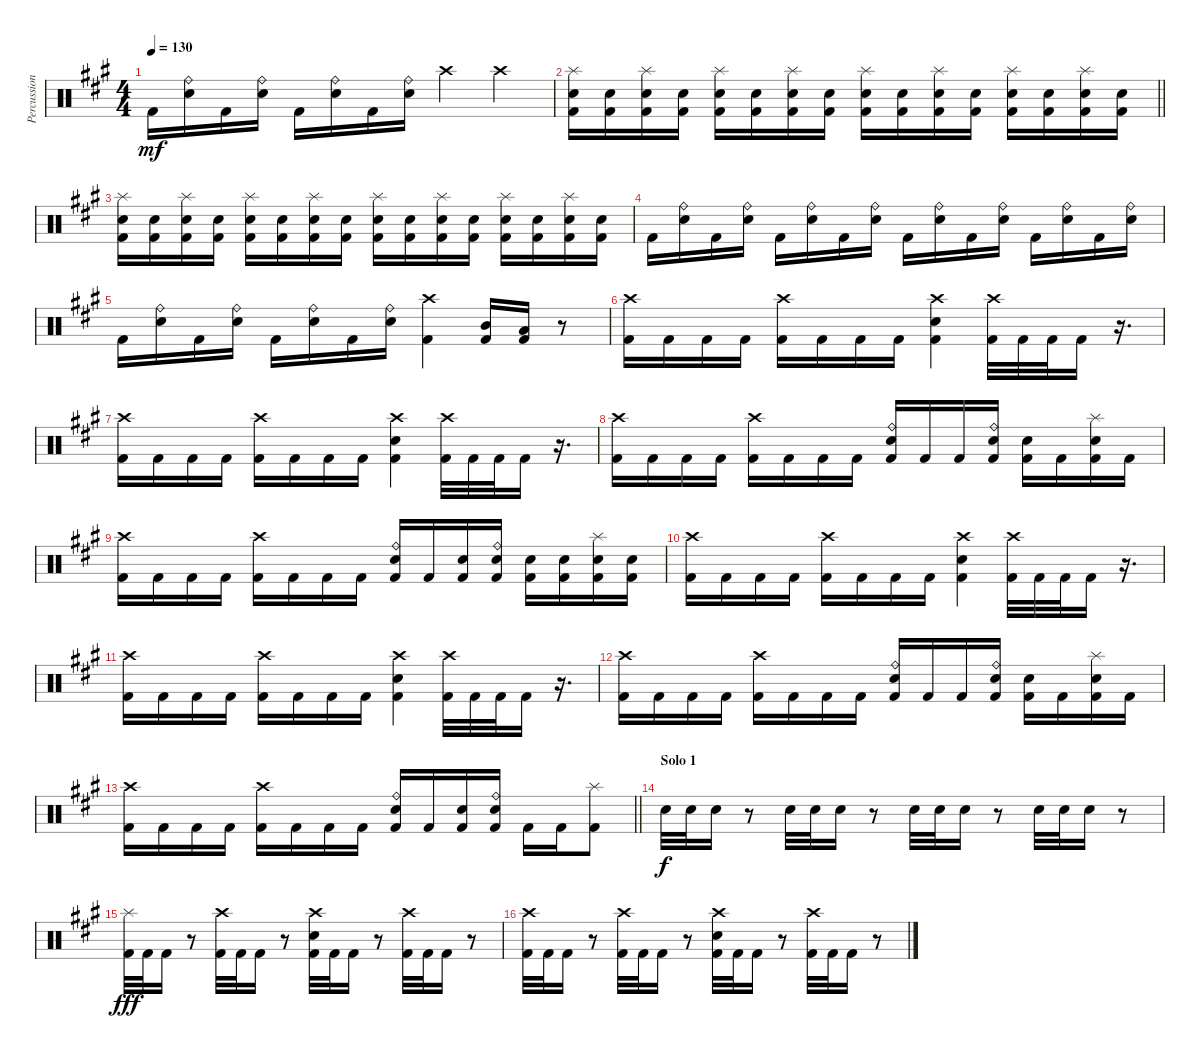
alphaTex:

\track ("Percussion" "Percussion") {instrument percussion bank 127}
\staff {score}
\articulation defaults
\ts (4 4)
\tempo 130
\clef neutral
\ks a "Kick (hit) 2".16{dy mf}
("Ride (bell)" "Electric Snare (hit)").16 "Kick (hit) 2".16 ("Ride (bell)" "Electric Snare (hit)").16 "Kick (hit) 2".16 ("Ride (bell)" "Electric Snare (hit)").16 "Kick (hit) 2".16 ("Ride (bell)" "Electric Snare (hit)").16 "Crash high (hit)".4 "Crash high (hit)".4 |
\barLineRight lightlight
("Splash (hit)" "Electric Snare (hit)" "Kick (hit) 2").16 ("Electric Snare (hit)" "Kick (hit) 2").16 ("Splash (hit)" "Electric Snare (hit)" "Kick (hit) 2").16 ("Electric Snare (hit)" "Kick (hit) 2").16 ("Splash (hit)" "Electric Snare (hit)" "Kick (hit) 2").16 ("Electric Snare (hit)" "Kick (hit) 2").16 ("Splash (hit)" "Electric Snare (hit)" "Kick (hit) 2").16 ("Electric Snare (hit)" "Kick (hit) 2").16 ("Splash (hit)" "Electric Snare (hit)" "Kick (hit) 2").16 ("Electric Snare (hit)" "Kick (hit) 2").16 ("Splash (hit)" "Electric Snare (hit)" "Kick (hit) 2").16 ("Electric Snare (hit)" "Kick (hit) 2").16 ("Splash (hit)" "Electric Snare (hit)" "Kick (hit) 2").16 ("Electric Snare (hit)" "Kick (hit) 2").16 ("Splash (hit)" "Electric Snare (hit)" "Kick (hit) 2").16 ("Electric Snare (hit)" "Kick (hit) 2").16 |
("Splash (hit)" "Electric Snare (hit)" "Kick (hit) 2").16 ("Electric Snare (hit)" "Kick (hit) 2").16 ("Splash (hit)" "Electric Snare (hit)" "Kick (hit) 2").16 ("Electric Snare (hit)" "Kick (hit) 2").16 ("Splash (hit)" "Electric Snare (hit)" "Kick (hit) 2").16 ("Electric Snare (hit)" "Kick (hit) 2").16 ("Splash (hit)" "Electric Snare (hit)" "Kick (hit) 2").16 ("Electric Snare (hit)" "Kick (hit) 2").16 ("Splash (hit)" "Electric Snare (hit)" "Kick (hit) 2").16 ("Electric Snare (hit)" "Kick (hit) 2").16 ("Splash (hit)" "Electric Snare (hit)" "Kick (hit) 2").16 ("Electric Snare (hit)" "Kick (hit) 2").16 ("Splash (hit)" "Electric Snare (hit)" "Kick (hit) 2").16 ("Electric Snare (hit)" "Kick (hit) 2").16 ("Splash (hit)" "Electric Snare (hit)" "Kick (hit) 2").16 ("Electric Snare (hit)" "Kick (hit) 2").16 |
"Kick (hit) 2".16 ("Ride (bell)" "Electric Snare (hit)").16 "Kick (hit) 2".16 ("Ride (bell)" "Electric Snare (hit)").16 "Kick (hit) 2".16 ("Ride (bell)" "Electric Snare (hit)").16 "Kick (hit) 2".16 ("Ride (bell)" "Electric Snare (hit)").16 "Kick (hit) 2".16 ("Ride (bell)" "Electric Snare (hit)").16 "Kick (hit) 2".16 ("Ride (bell)" "Electric Snare (hit)").16 "Kick (hit) 2".16 ("Ride (bell)" "Electric Snare (hit)").16 "Kick (hit) 2".16 ("Ride (bell)" "Electric Snare (hit)").16 |
"Kick (hit) 2".16 ("Ride (bell)" "Electric Snare (hit)").16 "Kick (hit) 2".16 ("Ride (bell)" "Electric Snare (hit)").16 "Kick (hit) 2".16 ("Ride (bell)" "Electric Snare (hit)").16 "Kick (hit) 2".16 ("Ride (bell)" "Electric Snare (hit)").16 ("Crash high (hit)" "Kick (hit) 2").4 ("Mid Tom (hit)" "Kick (hit) 2").16 ("Low Tom (hit)" "Kick (hit) 2").16 r.8 |
("Crash high (hit)" "Kick (hit) 2").16 "Kick (hit) 2".16 "Kick (hit) 2".16 "Kick (hit) 2".16 ("Crash high (hit)" "Kick (hit) 2").16 "Kick (hit) 2".16 "Kick (hit) 2".16 "Kick (hit) 2".16 ("Crash high (hit)" "Electric Snare (hit)" "Kick (hit) 2").4 ("Crash high (hit)" "Kick (hit) 2").32 "Kick (hit) 2".32 "Kick (hit) 2".32 "Kick (hit) 2".16 r.16{d} |
("Crash high (hit)" "Kick (hit) 2").16 "Kick (hit) 2".16 "Kick (hit) 2".16 "Kick (hit) 2".16 ("Crash high (hit)" "Kick (hit) 2").16 "Kick (hit) 2".16 "Kick (hit) 2".16 "Kick (hit) 2".16 ("Crash high (hit)" "Electric Snare (hit)" "Kick (hit) 2").4 ("Crash high (hit)" "Kick (hit) 2").32 "Kick (hit) 2".32 "Kick (hit) 2".32 "Kick (hit) 2".16 r.16{d} |
("Crash high (hit)" "Kick (hit) 2").16 "Kick (hit) 2".16 "Kick (hit) 2".16 "Kick (hit) 2".16 ("Crash high (hit)" "Kick (hit) 2").16 "Kick (hit) 2".16 "Kick (hit) 2".16 "Kick (hit) 2".16 ("Ride (bell)" "Electric Snare (hit)" "Kick (hit) 2").16 "Kick (hit) 2".16 "Kick (hit) 2".16 ("Ride (bell)" "Electric Snare (hit)" "Kick (hit) 2").16 ("Electric Snare (hit)" "Kick (hit) 2").16 "Kick (hit) 2".16 ("Splash (hit)" "Electric Snare (hit)" "Kick (hit) 2").16 "Kick (hit) 2".16 |
("Crash high (hit)" "Kick (hit) 2").16 "Kick (hit) 2".16 "Kick (hit) 2".16 "Kick (hit) 2".16 ("Crash high (hit)" "Kick (hit) 2").16 "Kick (hit) 2".16 "Kick (hit) 2".16 "Kick (hit) 2".16 ("Ride (bell)" "Electric Snare (hit)" "Kick (hit) 2").16 "Kick (hit) 2".16 ("Electric Snare (hit)" "Kick (hit) 2").16 ("Ride (bell)" "Electric Snare (hit)" "Kick (hit) 2").16 ("Electric Snare (hit)" "Kick (hit) 2").16 ("Electric Snare (hit)" "Kick (hit) 2").16 ("Splash (hit)" "Electric Snare (hit)" "Kick (hit) 2").16 ("Electric Snare (hit)" "Kick (hit) 2").16 |
("Crash high (hit)" "Kick (hit) 2").16 "Kick (hit) 2".16 "Kick (hit) 2".16 "Kick (hit) 2".16 ("Crash high (hit)" "Kick (hit) 2").16 "Kick (hit) 2".16 "Kick (hit) 2".16 "Kick (hit) 2".16 ("Crash high (hit)" "Electric Snare (hit)" "Kick (hit) 2").4 ("Crash high (hit)" "Kick (hit) 2").32 "Kick (hit) 2".32 "Kick (hit) 2".32 "Kick (hit) 2".16 r.16{d} |
("Crash high (hit)" "Kick (hit) 2").16 "Kick (hit) 2".16 "Kick (hit) 2".16 "Kick (hit) 2".16 ("Crash high (hit)" "Kick (hit) 2").16 "Kick (hit) 2".16 "Kick (hit) 2".16 "Kick (hit) 2".16 ("Crash high (hit)" "Electric Snare (hit)" "Kick (hit) 2").4 ("Crash high (hit)" "Kick (hit) 2").32 "Kick (hit) 2".32 "Kick (hit) 2".32 "Kick (hit) 2".16 r.16{d} |
("Crash high (hit)" "Kick (hit) 2").16 "Kick (hit) 2".16 "Kick (hit) 2".16 "Kick (hit) 2".16 ("Crash high (hit)" "Kick (hit) 2").16 "Kick (hit) 2".16 "Kick (hit) 2".16 "Kick (hit) 2".16 ("Ride (bell)" "Electric Snare (hit)" "Kick (hit) 2").16 "Kick (hit) 2".16 "Kick (hit) 2".16 ("Ride (bell)" "Electric Snare (hit)" "Kick (hit) 2").16 ("Electric Snare (hit)" "Kick (hit) 2").16 "Kick (hit) 2".16 ("Splash (hit)" "Electric Snare (hit)" "Kick (hit) 2").16 "Kick (hit) 2".16 |
\barLineRight lightlight
("Crash high (hit)" "Kick (hit) 2").16 "Kick (hit) 2".16 "Kick (hit) 2".16 "Kick (hit) 2".16 ("Crash high (hit)" "Kick (hit) 2").16 "Kick (hit) 2".16 "Kick (hit) 2".16 "Kick (hit) 2".16 ("Ride (bell)" "Electric Snare (hit)" "Kick (hit) 2").16 "Kick (hit) 2".16 ("Electric Snare (hit)" "Kick (hit) 2").16 ("Ride (bell)" "Electric Snare (hit)" "Kick (hit) 2").16 "Kick (hit) 2".16 "Kick (hit) 2".16 ("Splash (hit)" "Kick (hit) 2").8 |
\section ("" "Solo 1")
"Electric Snare (hit)".32{dy f} "Electric Snare (hit)".32 "Electric Snare (hit)".16 r.8 "Electric Snare (hit)".32 "Electric Snare (hit)".32 "Electric Snare (hit)".16 r.8 "Electric Snare (hit)".32 "Electric Snare (hit)".32 "Electric Snare (hit)".16 r.8 "Electric Snare (hit)".32 "Electric Snare (hit)".32 "Electric Snare (hit)".16 r.8 |
("Splash (hit)" "Kick (hit) 2").32{dy fff} "Kick (hit) 2".32 "Kick (hit) 2".16 r.8 ("Crash high (hit)" "Kick (hit) 2").32 "Kick (hit) 2".32 "Kick (hit) 2".16 r.8 ("Crash high (hit)" "Electric Snare (hit)" "Kick (hit) 2").32 "Kick (hit) 2".32 "Kick (hit) 2".16 r.8 ("Crash high (hit)" "Kick (hit) 2").32 "Kick (hit) 2".32 "Kick (hit) 2".16 r.8 |
("Crash high (hit)" "Kick (hit) 2").32 "Kick (hit) 2".32 "Kick (hit) 2".16 r.8 ("Crash high (hit)" "Kick (hit) 2").32 "Kick (hit) 2".32 "Kick (hit) 2".16 r.8 ("Crash high (hit)" "Electric Snare (hit)" "Kick (hit) 2").32 "Kick (hit) 2".32 "Kick (hit) 2".16 r.8 ("Crash high (hit)" "Kick (hit) 2").32 "Kick (hit) 2".32 "Kick (hit) 2".16 r.8
